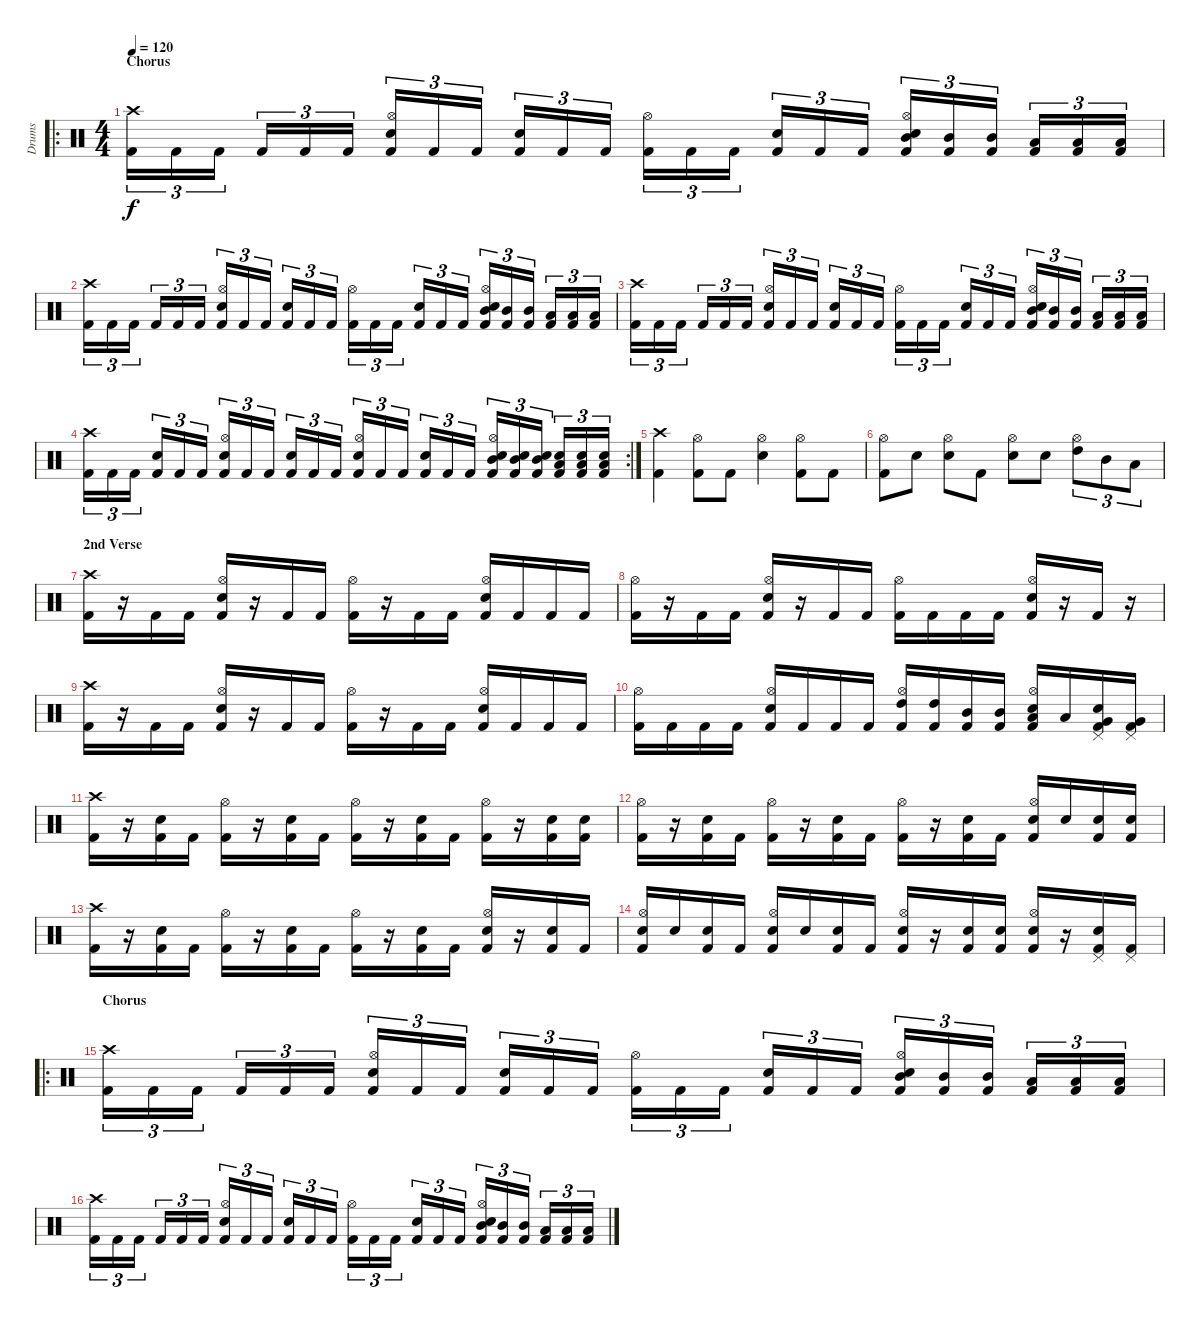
\track ("Drums" "Drums") {instrument percussion}
\staff {score}
\articulation defaults
\ro
\ts (4 4)
\section ("" "Chorus")
\tempo 120
\clef neutral
\ks c
("Crash high (hit)" "Kick (hit) 2").16{tu (3 2) dy f} "Kick (hit) 2".16{tu (3 2)} "Kick (hit) 2".16{tu (3 2)} "Kick (hit) 2".16{tu (3 2)} "Kick (hit) 2".16{tu (3 2)} "Kick (hit) 2".16{tu (3 2)} ("Hi-Hat (open)" "Electric Snare (hit)" "Kick (hit) 2").16{tu (3 2)} "Kick (hit) 2".16{tu (3 2)} "Kick (hit) 2".16{tu (3 2)} ("Electric Snare (hit)" "Kick (hit) 2").16{tu (3 2)} "Kick (hit) 2".16{tu (3 2)} "Kick (hit) 2".16{tu (3 2)} ("Hi-Hat (open)" "Kick (hit) 2").16{tu (3 2)} "Kick (hit) 2".16{tu (3 2)} "Kick (hit) 2".16{tu (3 2)} ("Electric Snare (hit)" "Kick (hit) 2").16{tu (3 2)} "Kick (hit) 2".16{tu (3 2)} "Kick (hit) 2".16{tu (3 2)} ("Hi-Hat (open)" "Electric Snare (hit)" "Mid Tom (hit)" "Kick (hit) 2").16{tu (3 2)} ("Mid Tom (hit)" "Kick (hit) 2").16{tu (3 2)} ("Mid Tom (hit)" "Kick (hit) 2").16{tu (3 2)} ("Low Tom (hit)" "Kick (hit) 2").16{tu (3 2)} ("Low Tom (hit)" "Kick (hit) 2").16{tu (3 2)} ("Low Tom (hit)" "Kick (hit) 2").16{tu (3 2)} |
("Crash high (hit)" "Kick (hit) 2").16{tu (3 2)} "Kick (hit) 2".16{tu (3 2)} "Kick (hit) 2".16{tu (3 2)} "Kick (hit) 2".16{tu (3 2)} "Kick (hit) 2".16{tu (3 2)} "Kick (hit) 2".16{tu (3 2)} ("Hi-Hat (open)" "Electric Snare (hit)" "Kick (hit) 2").16{tu (3 2)} "Kick (hit) 2".16{tu (3 2)} "Kick (hit) 2".16{tu (3 2)} ("Electric Snare (hit)" "Kick (hit) 2").16{tu (3 2)} "Kick (hit) 2".16{tu (3 2)} "Kick (hit) 2".16{tu (3 2)} ("Hi-Hat (open)" "Kick (hit) 2").16{tu (3 2)} "Kick (hit) 2".16{tu (3 2)} "Kick (hit) 2".16{tu (3 2)} ("Electric Snare (hit)" "Kick (hit) 2").16{tu (3 2)} "Kick (hit) 2".16{tu (3 2)} "Kick (hit) 2".16{tu (3 2)} ("Hi-Hat (open)" "Electric Snare (hit)" "Mid Tom (hit)" "Kick (hit) 2").16{tu (3 2)} ("Mid Tom (hit)" "Kick (hit) 2").16{tu (3 2)} ("Mid Tom (hit)" "Kick (hit) 2").16{tu (3 2)} ("Low Tom (hit)" "Kick (hit) 2").16{tu (3 2)} ("Low Tom (hit)" "Kick (hit) 2").16{tu (3 2)} ("Low Tom (hit)" "Kick (hit) 2").16{tu (3 2)} |
("Crash high (hit)" "Kick (hit) 2").16{tu (3 2)} "Kick (hit) 2".16{tu (3 2)} "Kick (hit) 2".16{tu (3 2)} "Kick (hit) 2".16{tu (3 2)} "Kick (hit) 2".16{tu (3 2)} "Kick (hit) 2".16{tu (3 2)} ("Hi-Hat (open)" "Electric Snare (hit)" "Kick (hit) 2").16{tu (3 2)} "Kick (hit) 2".16{tu (3 2)} "Kick (hit) 2".16{tu (3 2)} ("Electric Snare (hit)" "Kick (hit) 2").16{tu (3 2)} "Kick (hit) 2".16{tu (3 2)} "Kick (hit) 2".16{tu (3 2)} ("Hi-Hat (open)" "Kick (hit) 2").16{tu (3 2)} "Kick (hit) 2".16{tu (3 2)} "Kick (hit) 2".16{tu (3 2)} ("Electric Snare (hit)" "Kick (hit) 2").16{tu (3 2)} "Kick (hit) 2".16{tu (3 2)} "Kick (hit) 2".16{tu (3 2)} ("Hi-Hat (open)" "Electric Snare (hit)" "Mid Tom (hit)" "Kick (hit) 2").16{tu (3 2)} ("Mid Tom (hit)" "Kick (hit) 2").16{tu (3 2)} ("Mid Tom (hit)" "Kick (hit) 2").16{tu (3 2)} ("Low Tom (hit)" "Kick (hit) 2").16{tu (3 2)} ("Low Tom (hit)" "Kick (hit) 2").16{tu (3 2)} ("Low Tom (hit)" "Kick (hit) 2").16{tu (3 2)} |
\rc 2
("Crash high (hit)" "Kick (hit) 2").16{tu (3 2)} "Kick (hit) 2".16{tu (3 2)} "Kick (hit) 2".16{tu (3 2)} ("Electric Snare (hit)" "Kick (hit) 2").16{tu (3 2)} "Kick (hit) 2".16{tu (3 2)} "Kick (hit) 2".16{tu (3 2)} ("Hi-Hat (open)" "Electric Snare (hit)" "Kick (hit) 2").16{tu (3 2)} "Kick (hit) 2".16{tu (3 2)} "Kick (hit) 2".16{tu (3 2)} ("Electric Snare (hit)" "Kick (hit) 2").16{tu (3 2)} "Kick (hit) 2".16{tu (3 2)} "Kick (hit) 2".16{tu (3 2)} ("Hi-Hat (open)" "Electric Snare (hit)" "Kick (hit) 2").16{tu (3 2)} "Kick (hit) 2".16{tu (3 2)} "Kick (hit) 2".16{tu (3 2)} ("Electric Snare (hit)" "Kick (hit) 2").16{tu (3 2)} "Kick (hit) 2".16{tu (3 2)} "Kick (hit) 2".16{tu (3 2)} ("Hi-Hat (open)" "Electric Snare (hit)" "Mid Tom (hit)" "Kick (hit) 2").16{tu (3 2)} ("Electric Snare (hit)" "Mid Tom (hit)" "Kick (hit) 2").16{tu (3 2)} ("Electric Snare (hit)" "Mid Tom (hit)" "Kick (hit) 2").16{tu (3 2)} ("Electric Snare (hit)" "Low Tom (hit)" "Kick (hit) 2").16{tu (3 2)} ("Electric Snare (hit)" "Low Tom (hit)" "Kick (hit) 2").16{tu (3 2)} ("Electric Snare (hit)" "Low Tom (hit)" "Kick (hit) 2").16{tu (3 2)} |
("Crash high (hit)" "Kick (hit) 2").4 ("Hi-Hat (open)" "Kick (hit) 2").8 "Kick (hit) 2".8 ("Hi-Hat (open)" "Electric Snare (hit)").4 ("Hi-Hat (open)" "Kick (hit) 2").8 "Kick (hit) 2".8 |
("Hi-Hat (open)" "Kick (hit) 2").8 "Electric Snare (hit)".8 ("Hi-Hat (open)" "Electric Snare (hit)").8 "Kick (hit) 2".8 ("Hi-Hat (open)" "Electric Snare (hit)").8 "Electric Snare (hit)".8 ("Hi-Hat (open)" "High Tom (hit)").8{tu (3 2)} "Mid Tom (hit)".8{tu (3 2)} "Low Tom (hit)".8{tu (3 2)} |
\section ("" "2nd Verse")
("Crash high (hit)" "Kick (hit) 2").16 r.16 "Kick (hit) 2".16 "Kick (hit) 2".16 ("Hi-Hat (open)" "Electric Snare (hit)" "Kick (hit) 2").16 r.16 "Kick (hit) 2".16 "Kick (hit) 2".16 ("Hi-Hat (open)" "Kick (hit) 2").16 r.16 "Kick (hit) 2".16 "Kick (hit) 2".16 ("Hi-Hat (open)" "Electric Snare (hit)" "Kick (hit) 2").16 "Kick (hit) 2".16 "Kick (hit) 2".16 "Kick (hit) 2".16 |
("Hi-Hat (open)" "Kick (hit) 2").16 r.16 "Kick (hit) 2".16 "Kick (hit) 2".16 ("Hi-Hat (open)" "Electric Snare (hit)" "Kick (hit) 2").16 r.16 "Kick (hit) 2".16 "Kick (hit) 2".16 ("Hi-Hat (open)" "Kick (hit) 2").16 "Kick (hit) 2".16 "Kick (hit) 2".16 "Kick (hit) 2".16 ("Hi-Hat (open)" "Electric Snare (hit)" "Kick (hit) 2").16 r.16 "Kick (hit) 2".16 r.16 |
("Crash high (hit)" "Kick (hit) 2").16 r.16 "Kick (hit) 2".16 "Kick (hit) 2".16 ("Hi-Hat (open)" "Electric Snare (hit)" "Kick (hit) 2").16 r.16 "Kick (hit) 2".16 "Kick (hit) 2".16 ("Hi-Hat (open)" "Kick (hit) 2").16 r.16 "Kick (hit) 2".16 "Kick (hit) 2".16 ("Hi-Hat (open)" "Electric Snare (hit)" "Kick (hit) 2").16 "Kick (hit) 2".16 "Kick (hit) 2".16 "Kick (hit) 2".16 |
("Hi-Hat (open)" "Kick (hit) 2").16 "Kick (hit) 2".16 "Kick (hit) 2".16 "Kick (hit) 2".16 ("Hi-Hat (open)" "Electric Snare (hit)" "Kick (hit) 2").16 "Kick (hit) 2".16 "Kick (hit) 2".16 "Kick (hit) 2".16 ("Hi-Hat (open)" "High Tom (hit)" "Kick (hit) 2").16 ("High Tom (hit)" "Kick (hit) 2").16 ("Mid Tom (hit)" "Kick (hit) 2").16 ("Mid Tom (hit)" "Kick (hit) 2").16 ("Hi-Hat (open)" "Electric Snare (hit)" "Low Tom (hit)" "Kick (hit) 2").16 "Low Tom (hit)".16 ("Pedal Hi-Hat (hit)" "Electric Snare (hit)" "Very Low Tom (hit)" "Kick (hit) 2").16 ("Pedal Hi-Hat (hit)" "Very Low Tom (hit)" "Kick (hit) 2").16 |
("Crash high (hit)" "Kick (hit) 2").16 r.16 ("Electric Snare (hit)" "Kick (hit) 2").16 "Kick (hit) 2".16 ("Hi-Hat (open)" "Kick (hit) 2").16 r.16 ("Electric Snare (hit)" "Kick (hit) 2").16 "Kick (hit) 2".16 ("Hi-Hat (open)" "Kick (hit) 2").16 r.16 ("Electric Snare (hit)" "Kick (hit) 2").16 "Kick (hit) 2".16 ("Hi-Hat (open)" "Kick (hit) 2").16 r.16 ("Electric Snare (hit)" "Kick (hit) 2").16 ("Electric Snare (hit)" "Kick (hit) 2").16 |
("Hi-Hat (open)" "Kick (hit) 2").16 r.16 ("Electric Snare (hit)" "Kick (hit) 2").16 "Kick (hit) 2".16 ("Hi-Hat (open)" "Kick (hit) 2").16 r.16 ("Electric Snare (hit)" "Kick (hit) 2").16 "Kick (hit) 2".16 ("Hi-Hat (open)" "Kick (hit) 2").16 r.16 ("Electric Snare (hit)" "Kick (hit) 2").16 "Kick (hit) 2".16 ("Hi-Hat (open)" "Electric Snare (hit)" "Kick (hit) 2").16 "Electric Snare (hit)".16 ("Electric Snare (hit)" "Kick (hit) 2").16 ("Electric Snare (hit)" "Kick (hit) 2").16 |
("Crash high (hit)" "Kick (hit) 2").16 r.16 ("Electric Snare (hit)" "Kick (hit) 2").16 "Kick (hit) 2".16 ("Hi-Hat (open)" "Kick (hit) 2").16 r.16 ("Electric Snare (hit)" "Kick (hit) 2").16 "Kick (hit) 2".16 ("Hi-Hat (open)" "Kick (hit) 2").16 r.16 ("Electric Snare (hit)" "Kick (hit) 2").16 "Kick (hit) 2".16 ("Hi-Hat (open)" "Electric Snare (hit)" "Kick (hit) 2").16 r.16 ("Electric Snare (hit)" "Kick (hit) 2").16 "Kick (hit) 2".16 |
("Hi-Hat (open)" "Electric Snare (hit)" "Kick (hit) 2").16 "Electric Snare (hit)".16 ("Electric Snare (hit)" "Kick (hit) 2").16 "Kick (hit) 2".16 ("Hi-Hat (open)" "Electric Snare (hit)" "Kick (hit) 2").16 "Electric Snare (hit)".16 ("Electric Snare (hit)" "Kick (hit) 2").16 "Kick (hit) 2".16 ("Hi-Hat (open)" "Electric Snare (hit)" "Kick (hit) 2").16 r.16 ("Electric Snare (hit)" "Kick (hit) 2").16 ("Electric Snare (hit)" "Kick (hit) 2").16 ("Hi-Hat (open)" "Electric Snare (hit)" "Kick (hit) 2").16 r.16 ("Pedal Hi-Hat (hit)" "Electric Snare (hit)" "Kick (hit) 2").16 ("Pedal Hi-Hat (hit)" "Kick (hit) 2").16 |
\ro
\section ("" "Chorus")
("Crash high (hit)" "Kick (hit) 2").16{tu (3 2)} "Kick (hit) 2".16{tu (3 2)} "Kick (hit) 2".16{tu (3 2)} "Kick (hit) 2".16{tu (3 2)} "Kick (hit) 2".16{tu (3 2)} "Kick (hit) 2".16{tu (3 2)} ("Hi-Hat (open)" "Electric Snare (hit)" "Kick (hit) 2").16{tu (3 2)} "Kick (hit) 2".16{tu (3 2)} "Kick (hit) 2".16{tu (3 2)} ("Electric Snare (hit)" "Kick (hit) 2").16{tu (3 2)} "Kick (hit) 2".16{tu (3 2)} "Kick (hit) 2".16{tu (3 2)} ("Hi-Hat (open)" "Kick (hit) 2").16{tu (3 2)} "Kick (hit) 2".16{tu (3 2)} "Kick (hit) 2".16{tu (3 2)} ("Electric Snare (hit)" "Kick (hit) 2").16{tu (3 2)} "Kick (hit) 2".16{tu (3 2)} "Kick (hit) 2".16{tu (3 2)} ("Hi-Hat (open)" "Electric Snare (hit)" "Mid Tom (hit)" "Kick (hit) 2").16{tu (3 2)} ("Mid Tom (hit)" "Kick (hit) 2").16{tu (3 2)} ("Mid Tom (hit)" "Kick (hit) 2").16{tu (3 2)} ("Low Tom (hit)" "Kick (hit) 2").16{tu (3 2)} ("Low Tom (hit)" "Kick (hit) 2").16{tu (3 2)} ("Low Tom (hit)" "Kick (hit) 2").16{tu (3 2)} |
("Crash high (hit)" "Kick (hit) 2").16{tu (3 2)} "Kick (hit) 2".16{tu (3 2)} "Kick (hit) 2".16{tu (3 2)} "Kick (hit) 2".16{tu (3 2)} "Kick (hit) 2".16{tu (3 2)} "Kick (hit) 2".16{tu (3 2)} ("Hi-Hat (open)" "Electric Snare (hit)" "Kick (hit) 2").16{tu (3 2)} "Kick (hit) 2".16{tu (3 2)} "Kick (hit) 2".16{tu (3 2)} ("Electric Snare (hit)" "Kick (hit) 2").16{tu (3 2)} "Kick (hit) 2".16{tu (3 2)} "Kick (hit) 2".16{tu (3 2)} ("Hi-Hat (open)" "Kick (hit) 2").16{tu (3 2)} "Kick (hit) 2".16{tu (3 2)} "Kick (hit) 2".16{tu (3 2)} ("Electric Snare (hit)" "Kick (hit) 2").16{tu (3 2)} "Kick (hit) 2".16{tu (3 2)} "Kick (hit) 2".16{tu (3 2)} ("Hi-Hat (open)" "Electric Snare (hit)" "Mid Tom (hit)" "Kick (hit) 2").16{tu (3 2)} ("Mid Tom (hit)" "Kick (hit) 2").16{tu (3 2)} ("Mid Tom (hit)" "Kick (hit) 2").16{tu (3 2)} ("Low Tom (hit)" "Kick (hit) 2").16{tu (3 2)} ("Low Tom (hit)" "Kick (hit) 2").16{tu (3 2)} ("Low Tom (hit)" "Kick (hit) 2").16{tu (3 2)}
